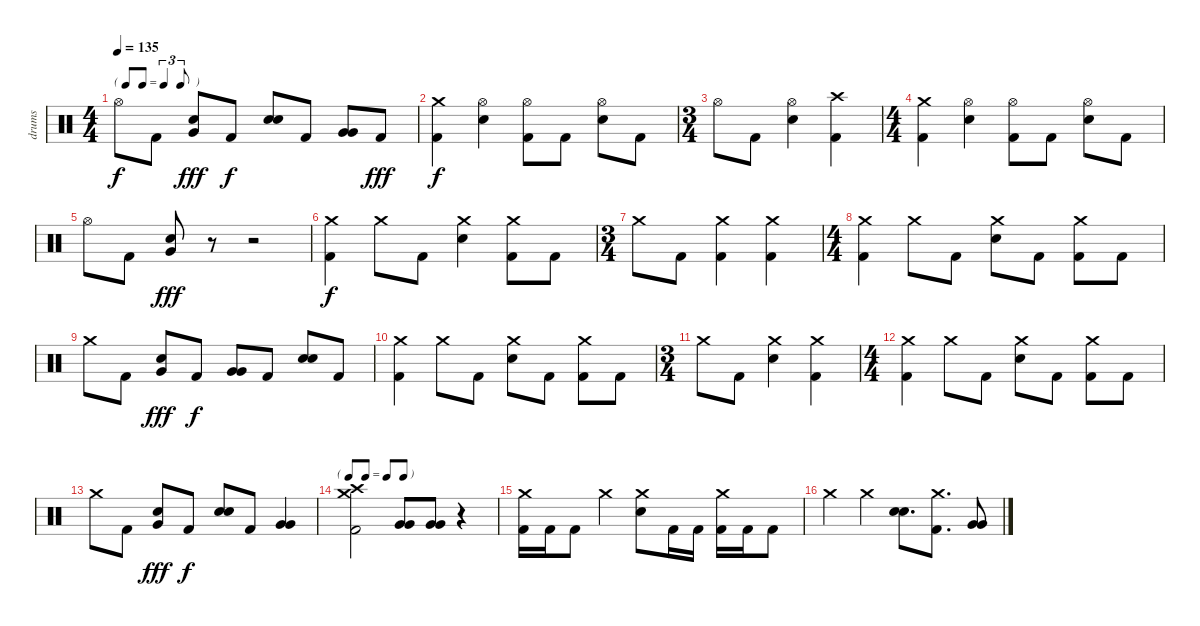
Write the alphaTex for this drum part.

\track ("drums" "drums") {instrument percussion}
\staff {score}
\articulation defaults
\ts (4 4)
\tf triplet8th
\tempo 135
\clef neutral
\ks c "Hi-Hat (open)".8{dy f} "Kick (hit) 2".8
("Electric Snare (hit)" "Very Low Tom (hit)").8{dy fff} "Kick (hit) 2".8{dy f} ("Electric Snare (hit)" "Electric Snare (hit)").8 "Kick (hit) 2".8 ("Very Low Tom (hit)" "Very Low Tom (hit)").8 "Kick (hit) 2".8{dy fff} |
("Crash medium (hit)" "Kick (hit) 2").4{dy f} ("Hi-Hat (open)" "Electric Snare (hit)").4 ("Hi-Hat (open)" "Kick (hit) 2").8 "Kick (hit) 2".8 ("Hi-Hat (open)" "Electric Snare (hit)").8 "Kick (hit) 2".8 |
\ts (3 4)
"Hi-Hat (open)".8 "Kick (hit) 2".8 ("Hi-Hat (open)" "Electric Snare (hit)").4 ("Crash high (hit)" "Kick (hit) 2").4 |
\ts (4 4)
("Crash medium (hit)" "Kick (hit) 2").4 ("Hi-Hat (open)" "Electric Snare (hit)").4 ("Hi-Hat (open)" "Kick (hit) 2").8 "Kick (hit) 2".8 ("Hi-Hat (open)" "Electric Snare (hit)").8 "Kick (hit) 2".8 |
"Hi-Hat (open)".8 "Kick (hit) 2".8 ("Electric Snare (hit)" "Very Low Tom (hit)").8{dy fff} r.8 r.2 |
("Crash medium (hit)" "Kick (hit) 2").4{dy f} "Crash medium (hit)".8 "Kick (hit) 2".8 ("Crash medium (hit)" "Electric Snare (hit)").4 ("Crash medium (hit)" "Kick (hit) 2").8 "Kick (hit) 2".8 |
\ts (3 4)
"Crash medium (hit)".8 "Kick (hit) 2".8 ("Crash medium (hit)" "Kick (hit) 2").4 ("Crash medium (hit)" "Kick (hit) 2").4 |
\ts (4 4)
("Crash medium (hit)" "Kick (hit) 2").4 "Crash medium (hit)".8 "Kick (hit) 2".8 ("Crash medium (hit)" "Electric Snare (hit)").8 "Kick (hit) 2".8 ("Crash medium (hit)" "Kick (hit) 2").8 "Kick (hit) 2".8 |
"Crash medium (hit)".8 "Kick (hit) 2".8 ("Electric Snare (hit)" "Very Low Tom (hit)").8{dy fff} "Kick (hit) 2".8{dy f} ("Very Low Tom (hit)" "Very Low Tom (hit)").8 "Kick (hit) 2".8 ("Electric Snare (hit)" "Electric Snare (hit)").8 "Kick (hit) 2".8 |
("Crash medium (hit)" "Kick (hit) 2").4 "Crash medium (hit)".8 "Kick (hit) 2".8 ("Crash medium (hit)" "Electric Snare (hit)").8 "Kick (hit) 2".8 ("Crash medium (hit)" "Kick (hit) 2").8 "Kick (hit) 2".8 |
\ts (3 4)
"Crash medium (hit)".8 "Kick (hit) 2".8 ("Crash medium (hit)" "Electric Snare (hit)").4 ("Crash medium (hit)" "Kick (hit) 2").4 |
\ts (4 4)
("Crash medium (hit)" "Kick (hit) 2").4 "Crash medium (hit)".8 "Kick (hit) 2".8 ("Crash medium (hit)" "Electric Snare (hit)").8 "Kick (hit) 2".8 ("Crash medium (hit)" "Kick (hit) 2").8 "Kick (hit) 2".8 |
"Crash medium (hit)".8 "Kick (hit) 2".8 ("Electric Snare (hit)" "Very Low Tom (hit)").8{dy fff} "Kick (hit) 2".8{dy f} ("Electric Snare (hit)" "Electric Snare (hit)").8 "Kick (hit) 2".8 ("Very Low Tom (hit)" "Very Low Tom (hit)").4 |
\tf none
("Crash medium (hit)" "Crash high (hit)" "Kick (hit) 2").2 ("Very Low Tom (hit)" "Very Low Tom (hit)").8 ("Very Low Tom (hit)" "Very Low Tom (hit)").8 r.4 |
("Crash medium (hit)" "Kick (hit) 2").16 "Kick (hit) 2".16 "Kick (hit) 2".8 "Crash medium (hit)".4 ("Crash medium (hit)" "Electric Snare (hit)").8 "Kick (hit) 2".16 "Kick (hit) 2".16 ("Crash medium (hit)" "Kick (hit) 2").16 "Kick (hit) 2".16 "Kick (hit) 2".8 |
"Crash medium (hit)".4 "Crash medium (hit)".4 ("Electric Snare (hit)" "Electric Snare (hit)").8{d} ("Crash medium (hit)" "Kick (hit) 2").8{d} ("Very Low Tom (hit)" "Very Low Tom (hit)").8
